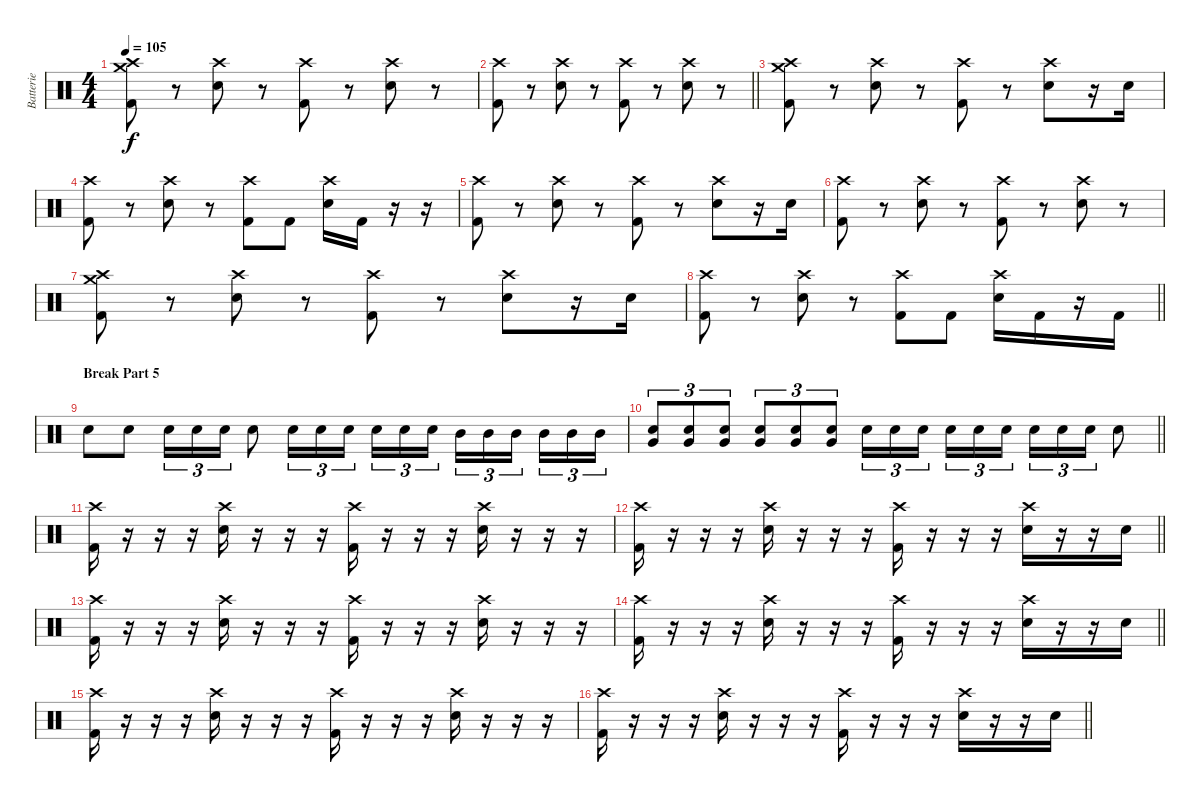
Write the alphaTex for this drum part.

\track ("Batterie" "Batterie") {instrument percussion}
\staff {score}
\articulation defaults
\ts (4 4)
\tempo 105
\clef neutral
\ks c
("Kick (hit) 2" "Crash medium (hit)" "Crash high (hit)").8{dy f} r.8 ("Electric Snare (hit)" "Crash high (hit)").8 r.8 ("Kick (hit) 2" "Crash high (hit)").8 r.8 ("Electric Snare (hit)" "Crash high (hit)").8 r.8 |
\barLineRight lightlight
("Kick (hit) 2" "Crash high (hit)").8 r.8 ("Electric Snare (hit)" "Crash high (hit)").8 r.8 ("Kick (hit) 2" "Crash high (hit)").8 r.8 ("Electric Snare (hit)" "Crash high (hit)").8 r.8 |
("Kick (hit) 2" "Crash medium (hit)" "Crash high (hit)").8 r.8 ("Electric Snare (hit)" "Crash high (hit)").8 r.8 ("Kick (hit) 2" "Crash high (hit)").8 r.8 ("Electric Snare (hit)" "Crash high (hit)").8 r.16 "Electric Snare (hit)".16 |
("Kick (hit) 2" "Crash high (hit)").8 r.8 ("Electric Snare (hit)" "Crash high (hit)").8 r.8 ("Kick (hit) 2" "Crash high (hit)").8 "Kick (hit) 2".8 ("Electric Snare (hit)" "Crash high (hit)").16 "Kick (hit) 2".16 r.16 r.16 |
("Kick (hit) 2" "Crash high (hit)").8 r.8 ("Electric Snare (hit)" "Crash high (hit)").8 r.8 ("Kick (hit) 2" "Crash high (hit)").8 r.8 ("Electric Snare (hit)" "Crash high (hit)").8 r.16 "Electric Snare (hit)".16 |
("Kick (hit) 2" "Crash high (hit)").8 r.8 ("Electric Snare (hit)" "Crash high (hit)").8 r.8 ("Kick (hit) 2" "Crash high (hit)").8 r.8 ("Electric Snare (hit)" "Crash high (hit)").8 r.8 |
("Kick (hit) 2" "Crash medium (hit)" "Crash high (hit)").8 r.8 ("Electric Snare (hit)" "Crash high (hit)").8 r.8 ("Kick (hit) 2" "Crash high (hit)").8 r.8 ("Electric Snare (hit)" "Crash high (hit)").8 r.16 "Electric Snare (hit)".16 |
\barLineRight lightlight
("Kick (hit) 2" "Crash high (hit)").8 r.8 ("Electric Snare (hit)" "Crash high (hit)").8 r.8 ("Kick (hit) 2" "Crash high (hit)").8 "Kick (hit) 2".8 ("Electric Snare (hit)" "Crash high (hit)").16 "Kick (hit) 2".16 r.16 "Kick (hit) 2".16 |
\section ("" "Break Part 5")
"Electric Snare (hit)".8 "Electric Snare (hit)".8 "Electric Snare (hit)".16{tu (3 2)} "Electric Snare (hit)".16{tu (3 2)} "Electric Snare (hit)".16{tu (3 2)} "Electric Snare (hit)".8 "Electric Snare (hit)".16{tu (3 2)} "Electric Snare (hit)".16{tu (3 2)} "Electric Snare (hit)".16{tu (3 2) beam splitsecondary} "Electric Snare (hit)".16{tu (3 2)} "Electric Snare (hit)".16{tu (3 2)} "Electric Snare (hit)".16{tu (3 2)} "Mid Tom (hit)".16{tu (3 2)} "Mid Tom (hit)".16{tu (3 2)} "Mid Tom (hit)".16{tu (3 2) beam splitsecondary} "Mid Tom (hit)".16{tu (3 2)} "Mid Tom (hit)".16{tu (3 2)} "Mid Tom (hit)".16{tu (3 2)} |
\barLineRight lightlight
("Electric Snare (hit)" "Very Low Tom (hit)").8{tu (3 2)} ("Electric Snare (hit)" "Very Low Tom (hit)").8{tu (3 2)} ("Electric Snare (hit)" "Very Low Tom (hit)").8{tu (3 2)} ("Electric Snare (hit)" "Very Low Tom (hit)").8{tu (3 2)} ("Electric Snare (hit)" "Very Low Tom (hit)").8{tu (3 2)} ("Electric Snare (hit)" "Very Low Tom (hit)").8{tu (3 2)} "Electric Snare (hit)".16{tu (3 2)} "Electric Snare (hit)".16{tu (3 2)} "Electric Snare (hit)".16{tu (3 2) beam splitsecondary} "Electric Snare (hit)".16{tu (3 2)} "Electric Snare (hit)".16{tu (3 2)} "Electric Snare (hit)".16{tu (3 2)} "Electric Snare (hit)".16{tu (3 2)} "Electric Snare (hit)".16{tu (3 2)} "Electric Snare (hit)".16{tu (3 2)} "Electric Snare (hit)".8 |
("Kick (hit) 2" "Crash high (hit)").16 r.16 r.16 r.16 ("Electric Snare (hit)" "Crash high (hit)").16 r.16 r.16 r.16 ("Kick (hit) 2" "Crash high (hit)").16 r.16 r.16 r.16 ("Electric Snare (hit)" "Crash high (hit)").16 r.16 r.16 r.16 |
\barLineRight lightlight
("Kick (hit) 2" "Crash high (hit)").16 r.16 r.16 r.16 ("Electric Snare (hit)" "Crash high (hit)").16 r.16 r.16 r.16 ("Kick (hit) 2" "Crash high (hit)").16 r.16 r.16 r.16 ("Electric Snare (hit)" "Crash high (hit)").16 r.16 r.16 "Electric Snare (hit)".16 |
("Kick (hit) 2" "Crash high (hit)").16 r.16 r.16 r.16 ("Electric Snare (hit)" "Crash high (hit)").16 r.16 r.16 r.16 ("Kick (hit) 2" "Crash high (hit)").16 r.16 r.16 r.16 ("Electric Snare (hit)" "Crash high (hit)").16 r.16 r.16 r.16 |
\barLineRight lightlight
("Kick (hit) 2" "Crash high (hit)").16 r.16 r.16 r.16 ("Electric Snare (hit)" "Crash high (hit)").16 r.16 r.16 r.16 ("Kick (hit) 2" "Crash high (hit)").16 r.16 r.16 r.16 ("Electric Snare (hit)" "Crash high (hit)").16 r.16 r.16 "Electric Snare (hit)".16 |
("Kick (hit) 2" "Crash high (hit)").16 r.16 r.16 r.16 ("Electric Snare (hit)" "Crash high (hit)").16 r.16 r.16 r.16 ("Kick (hit) 2" "Crash high (hit)").16 r.16 r.16 r.16 ("Electric Snare (hit)" "Crash high (hit)").16 r.16 r.16 r.16 |
\barLineRight lightlight
("Kick (hit) 2" "Crash high (hit)").16 r.16 r.16 r.16 ("Electric Snare (hit)" "Crash high (hit)").16 r.16 r.16 r.16 ("Kick (hit) 2" "Crash high (hit)").16 r.16 r.16 r.16 ("Electric Snare (hit)" "Crash high (hit)").16 r.16 r.16 "Electric Snare (hit)".16
